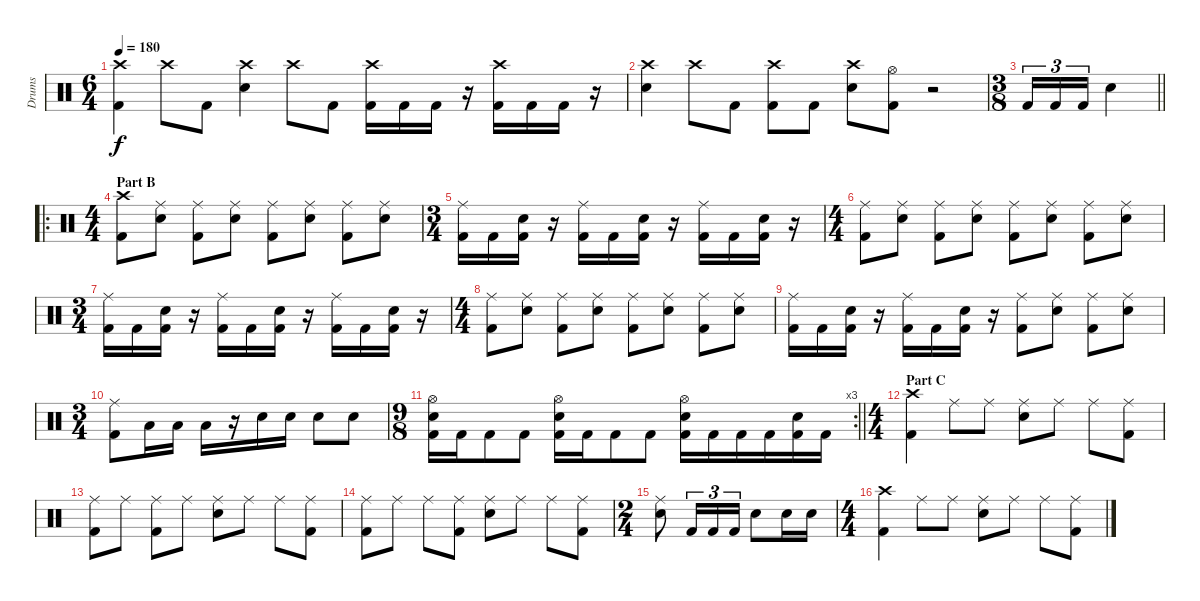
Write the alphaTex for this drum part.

\track ("Drums" "Drums") {instrument percussion}
\staff {score}
\articulation defaults
\ts (6 4)
\tempo 180
\clef neutral
\ks c
("Kick (hit) 2" "Crash high (hit)").4{dy f} "Crash high (hit)".8 "Kick (hit) 2".8 ("Crash high (hit)" "Snare (hit) 2").4 "Crash high (hit)".8 "Kick (hit) 2".8 ("Kick (hit) 2" "Crash high (hit)").16 "Kick (hit) 2".16 "Kick (hit) 2".16 r.16 ("Kick (hit) 2" "Crash high (hit)").16 "Kick (hit) 2".16 "Kick (hit) 2".16 r.16 |
("Crash high (hit)" "Snare (hit) 2").4 "Crash high (hit)".8 "Kick (hit) 2".8 ("Kick (hit) 2" "Crash high (hit)").8 "Kick (hit) 2".8 ("Crash high (hit)" "Snare (hit) 2").8 ("Kick (hit) 2" "Hi-Hat (open)").8 r.2 |
\ts (3 8)
\barLineRight lightlight "Kick (hit) 2".16{tu (3 2)} "Kick (hit) 2".16{tu (3 2)} "Kick (hit) 2".16{tu (3 2)} "Snare (hit) 2".4
|
\ro
\ts (4 4)
\section ("" "Part B")
("Kick (hit) 2" "Crash high (hit)").8 ("Snare (hit) 2" "Ride (middle)").8 ("Kick (hit) 2" "Ride (middle)").8 ("Snare (hit) 2" "Ride (middle)").8 ("Kick (hit) 2" "Ride (middle)").8 ("Snare (hit) 2" "Ride (middle)").8 ("Kick (hit) 2" "Ride (middle)").8 ("Snare (hit) 2" "Ride (middle)").8 |
\ts (3 4)
("Kick (hit) 2" "Ride (middle)").16 "Kick (hit) 2".16 ("Kick (hit) 2" "Snare (hit) 2").16 r.16 ("Kick (hit) 2" "Ride (middle)").16 "Kick (hit) 2".16 ("Kick (hit) 2" "Snare (hit) 2").16 r.16 ("Kick (hit) 2" "Ride (middle)").16 "Kick (hit) 2".16 ("Kick (hit) 2" "Snare (hit) 2").16 r.16 |
\ts (4 4)
("Kick (hit) 2" "Ride (middle)").8 ("Snare (hit) 2" "Ride (middle)").8 ("Kick (hit) 2" "Ride (middle)").8 ("Snare (hit) 2" "Ride (middle)").8 ("Kick (hit) 2" "Ride (middle)").8 ("Snare (hit) 2" "Ride (middle)").8 ("Kick (hit) 2" "Ride (middle)").8 ("Snare (hit) 2" "Ride (middle)").8 |
\ts (3 4)
("Kick (hit) 2" "Ride (middle)").16 "Kick (hit) 2".16 ("Kick (hit) 2" "Snare (hit) 2").16 r.16 ("Kick (hit) 2" "Ride (middle)").16 "Kick (hit) 2".16 ("Kick (hit) 2" "Snare (hit) 2").16 r.16 ("Kick (hit) 2" "Ride (middle)").16 "Kick (hit) 2".16 ("Kick (hit) 2" "Snare (hit) 2").16 r.16 |
\ts (4 4)
("Kick (hit) 2" "Ride (middle)").8 ("Snare (hit) 2" "Ride (middle)").8 ("Kick (hit) 2" "Ride (middle)").8 ("Snare (hit) 2" "Ride (middle)").8 ("Kick (hit) 2" "Ride (middle)").8 ("Snare (hit) 2" "Ride (middle)").8 ("Kick (hit) 2" "Ride (middle)").8 ("Snare (hit) 2" "Ride (middle)").8 |
("Kick (hit) 2" "Ride (middle)").16 "Kick (hit) 2".16 ("Kick (hit) 2" "Snare (hit) 2").16 r.16 ("Kick (hit) 2" "Ride (middle)").16 "Kick (hit) 2".16 ("Kick (hit) 2" "Snare (hit) 2").16 r.16 ("Kick (hit) 2" "Ride (middle)").8 ("Snare (hit) 2" "Ride (middle)").8 ("Kick (hit) 2" "Ride (middle)").8 ("Snare (hit) 2" "Ride (middle)").8 |
\ts (3 4)
("Kick (hit) 2" "Ride (middle)").8 "Low Tom (hit)".16 "Low Tom (hit)".16 "Low Tom (hit)".16 r.16 "Snare (hit) 2".16 "Snare (hit) 2".16 "Snare (hit) 2".8 "Snare (hit) 2".8 |
\rc 3
\ts (9 8)
\barLineRight lightlight
("Snare (hit) 2" "Hi-Hat (open)" "Kick (hit) 2").16 "Kick (hit) 2".16 "Kick (hit) 2".8 "Kick (hit) 2".8 ("Snare (hit) 2" "Hi-Hat (open)" "Kick (hit) 2").16 "Kick (hit) 2".16 "Kick (hit) 2".8 "Kick (hit) 2".8 ("Snare (hit) 2" "Hi-Hat (open)" "Kick (hit) 2").16 "Kick (hit) 2".16 "Kick (hit) 2".16 "Kick (hit) 2".16 ("Kick (hit) 2" "Snare (hit) 2").16 "Kick (hit) 2".16 |
\ts (4 4)
\section ("" "Part C")
("Kick (hit) 2" "Crash high (hit)").4 "Ride (middle)".8 "Ride (middle)".8 ("Ride (middle)" "Snare (hit) 2").8 "Ride (middle)".8 "Ride (middle)".8 ("Ride (middle)" "Kick (hit) 2").8 |
("Kick (hit) 2" "Ride (middle)").8 "Ride (middle)".8 ("Ride (middle)" "Kick (hit) 2").8 "Ride (middle)".8 ("Ride (middle)" "Snare (hit) 2").8 "Ride (middle)".8 "Ride (middle)".8 ("Ride (middle)" "Kick (hit) 2").8 |
("Kick (hit) 2" "Ride (middle)").8 "Ride (middle)".8 "Ride (middle)".8 ("Ride (middle)" "Kick (hit) 2").8 ("Ride (middle)" "Snare (hit) 2").8 "Ride (middle)".8 "Ride (middle)".8 ("Ride (middle)" "Kick (hit) 2").8 |
\ts (2 4)
("Ride (middle)" "Snare (hit) 2").8 "Kick (hit) 2".16{tu (3 2)} "Kick (hit) 2".16{tu (3 2)} "Kick (hit) 2".16{tu (3 2)} "Snare (hit) 2".8 "Snare (hit) 2".16 "Snare (hit) 2".16 |
\ts (4 4)
("Kick (hit) 2" "Crash high (hit)").4 "Ride (middle)".8 "Ride (middle)".8 ("Ride (middle)" "Snare (hit) 2").8 "Ride (middle)".8 "Ride (middle)".8 ("Ride (middle)" "Kick (hit) 2").8
